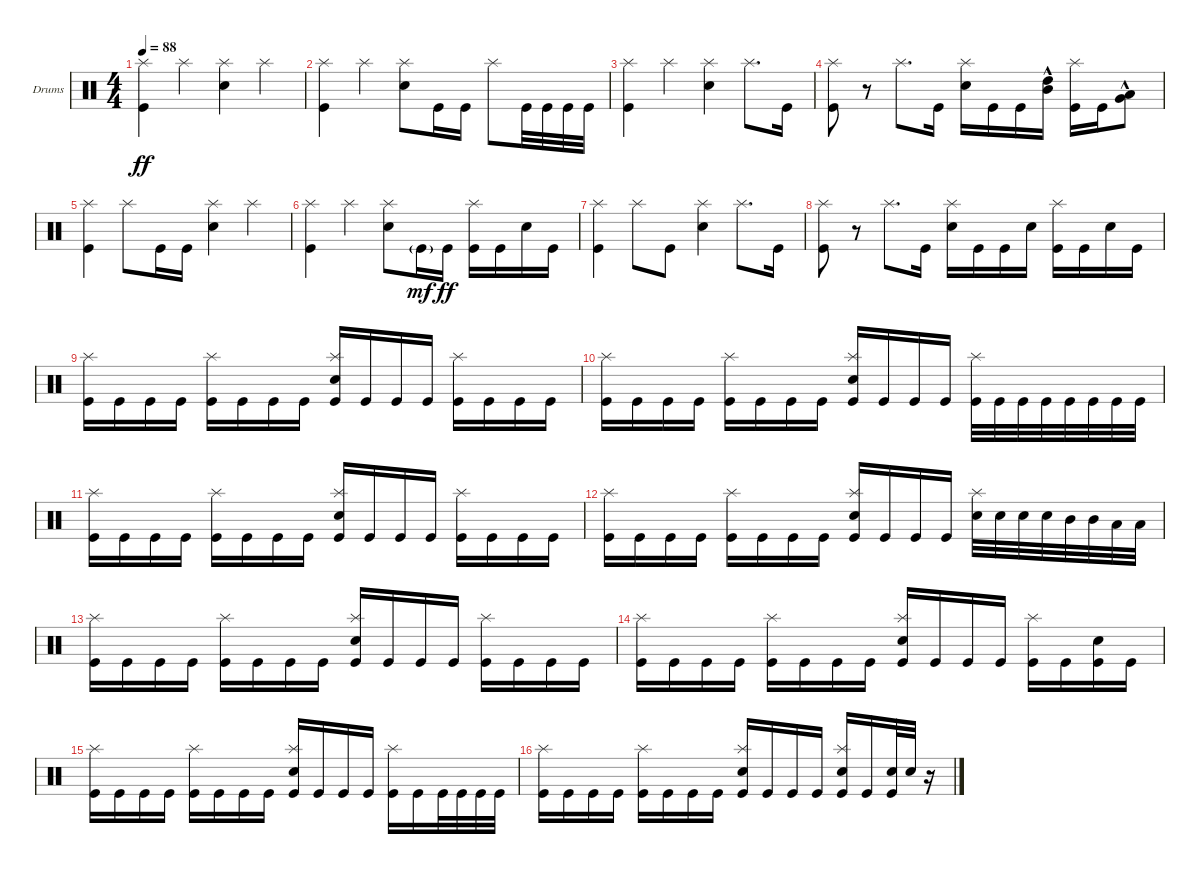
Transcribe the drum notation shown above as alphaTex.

\defaultSystemsLayout 4
\bracketExtendMode groupsimilarinstruments
\firstSystemTrackNameOrientation horizontal
\otherSystemsTrackNameOrientation horizontal
\track ("Drumkit" "Drums") {instrument percussion}
\staff {score}
\articulation defaults
\ts (4 4)
\tempo 88
\clef neutral
\ks c
("Kick (hit)" "Splash (hit)").4{dy ff} "Splash (hit)".4 ("Snare (hit) 2" "Splash (hit)").4 "Splash (hit)".4 |
("Kick (hit)" "Splash (hit)").4 "Splash (hit)".4 ("Snare (hit) 2" "Splash (hit)").8 "Kick (hit)".16 "Kick (hit)".16 "Splash (hit)".8 "Kick (hit)".32 "Kick (hit)".32 "Kick (hit)".32 "Kick (hit)".32 |
("Kick (hit)" "Splash (hit)").4 "Splash (hit)".4 ("Snare (hit) 2" "Splash (hit)").4 "Splash (hit)".8{d} "Kick (hit)".16 |
("Kick (hit)" "Splash (hit)").8 r.8 "Splash (hit)".8{d} "Kick (hit)".16 ("Snare (hit) 2" "Splash (hit)").16 "Kick (hit)".16 "Kick (hit)".16 ("Mid Tom (hit)"{hac} "High Tom (hit)"{hac}).16 ("Kick (hit)" "Splash (hit)").16 "Kick (hit)".16 ("Very Low Tom (hit)"{hac} "Low Tom (hit)"{hac}).8 |
("Kick (hit)" "Splash (hit)").4 "Splash (hit)".8 "Kick (hit)".16 "Kick (hit)".16 ("Snare (hit) 2" "Splash (hit)").4 "Splash (hit)".4 |
("Kick (hit)" "Splash (hit)").4 "Splash (hit)".4 ("Snare (hit) 2" "Splash (hit)").8 "Kick (hit)"{g}.16{dy mf} "Kick (hit)".16{dy ff} ("Splash (hit)" "Kick (hit)").16 "Kick (hit)".16 "Snare (hit) 2".16 "Kick (hit)".16 |
("Kick (hit)" "Splash (hit)").4 "Splash (hit)".8 "Kick (hit)".8 ("Snare (hit) 2" "Splash (hit)").4 "Splash (hit)".8{d} "Kick (hit)".16 |
("Kick (hit)" "Splash (hit)").8 r.8 "Splash (hit)".8{d} "Kick (hit)".16 ("Snare (hit) 2" "Splash (hit)").16 "Kick (hit)".16 "Kick (hit)".16 "Snare (hit) 2".16 ("Kick (hit)" "Splash (hit)").16 "Kick (hit)".16 "Snare (hit) 2".16 "Kick (hit)".16 |
("Kick (hit)" "Splash (hit)").16 "Kick (hit)".16 "Kick (hit)".16 "Kick (hit)".16 ("Kick (hit)" "Splash (hit)").16 "Kick (hit)".16 "Kick (hit)".16 "Kick (hit)".16 ("Kick (hit)" "Splash (hit)" "Snare (hit) 2").16 "Kick (hit)".16 "Kick (hit)".16 "Kick (hit)".16 ("Kick (hit)" "Splash (hit)").16 "Kick (hit)".16 "Kick (hit)".16 "Kick (hit)".16 |
("Kick (hit)" "Splash (hit)").16 "Kick (hit)".16 "Kick (hit)".16 "Kick (hit)".16 ("Kick (hit)" "Splash (hit)").16 "Kick (hit)".16 "Kick (hit)".16 "Kick (hit)".16 ("Kick (hit)" "Splash (hit)" "Snare (hit) 2").16 "Kick (hit)".16 "Kick (hit)".16 "Kick (hit)".16 ("Kick (hit)" "Splash (hit)").32 "Kick (hit)".32 "Kick (hit)".32 "Kick (hit)".32 "Kick (hit)".32 "Kick (hit)".32 "Kick (hit)".32 "Kick (hit)".32 |
("Kick (hit)" "Splash (hit)").16 "Kick (hit)".16 "Kick (hit)".16 "Kick (hit)".16 ("Kick (hit)" "Splash (hit)").16 "Kick (hit)".16 "Kick (hit)".16 "Kick (hit)".16 ("Kick (hit)" "Splash (hit)" "Snare (hit) 2").16 "Kick (hit)".16 "Kick (hit)".16 "Kick (hit)".16 ("Kick (hit)" "Splash (hit)").16 "Kick (hit)".16 "Kick (hit)".16 "Kick (hit)".16 |
("Kick (hit)" "Splash (hit)").16 "Kick (hit)".16 "Kick (hit)".16 "Kick (hit)".16 ("Kick (hit)" "Splash (hit)").16 "Kick (hit)".16 "Kick (hit)".16 "Kick (hit)".16 ("Kick (hit)" "Splash (hit)" "Snare (hit) 2").16 "Kick (hit)".16 "Kick (hit)".16 "Kick (hit)".16 ("Splash (hit)" "Snare (hit) 2").32 "Snare (hit) 2".32 "Snare (hit) 2".32 "Snare (hit) 2".32 "Mid Tom (hit)".32 "Mid Tom (hit)".32 "Low Tom (hit)".32 "Low Tom (hit)".32 |
("Kick (hit)" "Splash (hit)").16 "Kick (hit)".16 "Kick (hit)".16 "Kick (hit)".16 ("Kick (hit)" "Splash (hit)").16 "Kick (hit)".16 "Kick (hit)".16 "Kick (hit)".16 ("Kick (hit)" "Splash (hit)" "Snare (hit) 2").16 "Kick (hit)".16 "Kick (hit)".16 "Kick (hit)".16 ("Kick (hit)" "Splash (hit)").16 "Kick (hit)".16 "Kick (hit)".16 "Kick (hit)".16 |
("Kick (hit)" "Splash (hit)").16 "Kick (hit)".16 "Kick (hit)".16 "Kick (hit)".16 ("Kick (hit)" "Splash (hit)").16 "Kick (hit)".16 "Kick (hit)".16 "Kick (hit)".16 ("Kick (hit)" "Splash (hit)" "Snare (hit) 2").16 "Kick (hit)".16 "Kick (hit)".16 "Kick (hit)".16 ("Kick (hit)" "Splash (hit)").16 "Kick (hit)".16 ("Kick (hit)" "Snare (hit) 2").16 "Kick (hit)".16 |
("Kick (hit)" "Splash (hit)").16 "Kick (hit)".16 "Kick (hit)".16 "Kick (hit)".16 ("Kick (hit)" "Splash (hit)").16 "Kick (hit)".16 "Kick (hit)".16 "Kick (hit)".16 ("Kick (hit)" "Splash (hit)" "Snare (hit) 2").16 "Kick (hit)".16 "Kick (hit)".16 "Kick (hit)".16 ("Kick (hit)" "Splash (hit)").16 "Kick (hit)".16 "Kick (hit)".32 "Kick (hit)".32 "Kick (hit)".32 "Kick (hit)".32 |
("Kick (hit)" "Splash (hit)").16 "Kick (hit)".16 "Kick (hit)".16 "Kick (hit)".16 ("Kick (hit)" "Splash (hit)").16 "Kick (hit)".16 "Kick (hit)".16 "Kick (hit)".16 ("Kick (hit)" "Splash (hit)" "Snare (hit) 2").16 "Kick (hit)".16 "Kick (hit)".16 "Kick (hit)".16 ("Kick (hit)" "Splash (hit)" "Snare (hit) 2").16 "Kick (hit)".16 ("Kick (hit)" "Snare (hit) 2").32 "Snare (hit) 2".32 r.16
